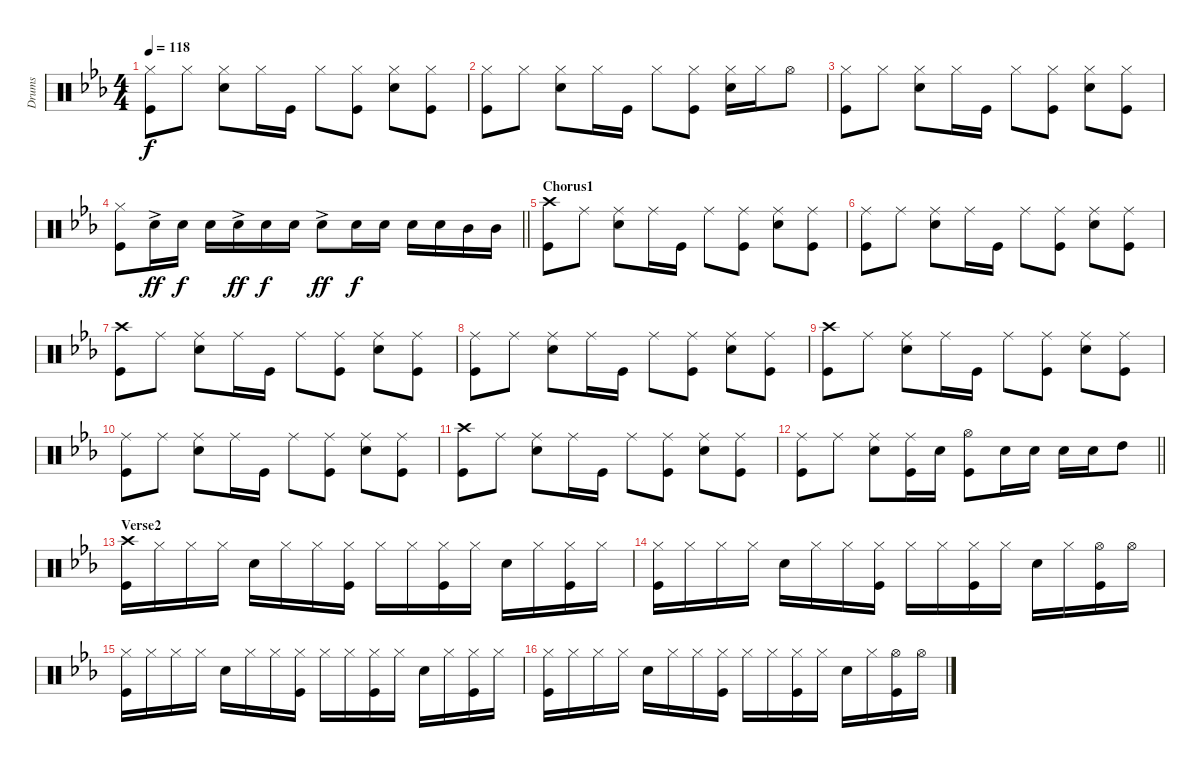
\track ("Drums" "Drums") {instrument percussion}
\staff {score}
\articulation defaults
\ts (4 4)
\tempo 118
\clef neutral
\ks cminor
("Hi-Hat (closed)" "Kick (hit)").8{dy f} "Hi-Hat (closed)".8 ("Hi-Hat (closed)" "Snare (hit) 2").8 "Hi-Hat (closed)".16 "Kick (hit)".16 "Hi-Hat (closed)".8 ("Hi-Hat (closed)" "Kick (hit)").8 ("Hi-Hat (closed)" "Snare (hit) 2").8 ("Hi-Hat (closed)" "Kick (hit)").8 |
("Hi-Hat (closed)" "Kick (hit)").8 "Hi-Hat (closed)".8 ("Hi-Hat (closed)" "Snare (hit) 2").8 "Hi-Hat (closed)".16 "Kick (hit)".16 "Hi-Hat (closed)".8 ("Hi-Hat (closed)" "Kick (hit)").8 ("Hi-Hat (closed)" "Snare (hit) 2").16 "Hi-Hat (closed)".16 "Hi-Hat (open)".8 |
("Hi-Hat (closed)" "Kick (hit)").8 "Hi-Hat (closed)".8 ("Hi-Hat (closed)" "Snare (hit) 2").8 "Hi-Hat (closed)".16 "Kick (hit)".16 "Hi-Hat (closed)".8 ("Hi-Hat (closed)" "Kick (hit)").8 ("Hi-Hat (closed)" "Snare (hit) 2").8 ("Hi-Hat (closed)" "Kick (hit)").8 |
\barLineRight lightlight
("Hi-Hat (closed)" "Kick (hit)").8 "Snare (hit) 2"{ac}.16{dy ff} "Snare (hit) 2".16{dy f} "Snare (hit) 2".16 "Snare (hit) 2"{ac}.16{dy ff} "Snare (hit) 2".16{dy f} "Snare (hit) 2".16 "Snare (hit) 2"{ac}.8{dy ff} "Snare (hit) 2".16{dy f} "Snare (hit) 2".16 "Snare (hit) 2".16 "Snare (hit) 2".16 "Mid Tom (hit)".16 "Mid Tom (hit)".16 |
\section ("" "Chorus1")
("Crash high (hit)" "Kick (hit)").8 "Ride (middle)".8 ("Ride (middle)" "Snare (hit) 2").8 "Ride (middle)".16 "Kick (hit)".16 "Ride (middle)".8 ("Ride (middle)" "Kick (hit)").8 ("Ride (middle)" "Snare (hit) 2").8 ("Ride (middle)" "Kick (hit)").8 |
("Ride (middle)" "Kick (hit)").8 "Ride (middle)".8 ("Ride (middle)" "Snare (hit) 2").8 "Ride (middle)".16 "Kick (hit)".16 "Ride (middle)".8 ("Ride (middle)" "Kick (hit)").8 ("Ride (middle)" "Snare (hit) 2").8 ("Ride (middle)" "Kick (hit)").8 |
("Crash high (hit)" "Kick (hit)").8 "Ride (middle)".8 ("Ride (middle)" "Snare (hit) 2").8 "Ride (middle)".16 "Kick (hit)".16 "Ride (middle)".8 ("Ride (middle)" "Kick (hit)").8 ("Ride (middle)" "Snare (hit) 2").8 ("Ride (middle)" "Kick (hit)").8 |
("Ride (middle)" "Kick (hit)").8 "Ride (middle)".8 ("Ride (middle)" "Snare (hit) 2").8 "Ride (middle)".16 "Kick (hit)".16 "Ride (middle)".8 ("Ride (middle)" "Kick (hit)").8 ("Ride (middle)" "Snare (hit) 2").8 ("Ride (middle)" "Kick (hit)").8 |
("Crash high (hit)" "Kick (hit)").8 "Ride (middle)".8 ("Ride (middle)" "Snare (hit) 2").8 "Ride (middle)".16 "Kick (hit)".16 "Ride (middle)".8 ("Ride (middle)" "Kick (hit)").8 ("Ride (middle)" "Snare (hit) 2").8 ("Ride (middle)" "Kick (hit)").8 |
("Ride (middle)" "Kick (hit)").8 "Ride (middle)".8 ("Ride (middle)" "Snare (hit) 2").8 "Ride (middle)".16 "Kick (hit)".16 "Ride (middle)".8 ("Ride (middle)" "Kick (hit)").8 ("Ride (middle)" "Snare (hit) 2").8 ("Ride (middle)" "Kick (hit)").8 |
("Crash high (hit)" "Kick (hit)").8 "Ride (middle)".8 ("Ride (middle)" "Snare (hit) 2").8 "Ride (middle)".16 "Kick (hit)".16 "Ride (middle)".8 ("Ride (middle)" "Kick (hit)").8 ("Ride (middle)" "Snare (hit) 2").8 ("Ride (middle)" "Kick (hit)").8 |
\barLineRight lightlight
("Ride (middle)" "Kick (hit)").8 "Ride (middle)".8 ("Ride (middle)" "Snare (hit) 2").8 ("Ride (middle)" "Kick (hit)").16 "Snare (hit) 2".16 ("Hi-Hat (open)" "Kick (hit)").8 "Snare (hit) 2".16 "Snare (hit) 2".16 "Snare (hit) 2".16 "Snare (hit) 2".16 "High Tom (hit)".8 |
\section ("" "Verse2")
("Crash high (hit)" "Kick (hit)").16 "Hi-Hat (closed)".16 "Hi-Hat (closed)".16 "Hi-Hat (closed)".16 "Snare (hit) 2".16 "Hi-Hat (closed)".16 "Hi-Hat (closed)".16 ("Hi-Hat (closed)" "Kick (hit)").16 "Hi-Hat (closed)".16 "Hi-Hat (closed)".16 ("Hi-Hat (closed)" "Kick (hit)").16 "Hi-Hat (closed)".16 "Snare (hit) 2".16 "Hi-Hat (closed)".16 ("Hi-Hat (closed)" "Kick (hit)").16 "Hi-Hat (closed)".16 |
("Hi-Hat (closed)" "Kick (hit)").16 "Hi-Hat (closed)".16 "Hi-Hat (closed)".16 "Hi-Hat (closed)".16 "Snare (hit) 2".16 "Hi-Hat (closed)".16 "Hi-Hat (closed)".16 ("Hi-Hat (closed)" "Kick (hit)").16 "Hi-Hat (closed)".16 "Hi-Hat (closed)".16 ("Hi-Hat (closed)" "Kick (hit)").16 "Hi-Hat (closed)".16 "Snare (hit) 2".16 "Hi-Hat (closed)".16 ("Kick (hit)" "Hi-Hat (open)").16 "Hi-Hat (open)".16 |
("Hi-Hat (closed)" "Kick (hit)").16 "Hi-Hat (closed)".16 "Hi-Hat (closed)".16 "Hi-Hat (closed)".16 "Snare (hit) 2".16 "Hi-Hat (closed)".16 "Hi-Hat (closed)".16 ("Hi-Hat (closed)" "Kick (hit)").16 "Hi-Hat (closed)".16 "Hi-Hat (closed)".16 ("Hi-Hat (closed)" "Kick (hit)").16 "Hi-Hat (closed)".16 "Snare (hit) 2".16 "Hi-Hat (closed)".16 ("Kick (hit)" "Hi-Hat (closed)").16 "Hi-Hat (closed)".16 |
("Hi-Hat (closed)" "Kick (hit)").16 "Hi-Hat (closed)".16 "Hi-Hat (closed)".16 "Hi-Hat (closed)".16 "Snare (hit) 2".16 "Hi-Hat (closed)".16 "Hi-Hat (closed)".16 ("Hi-Hat (closed)" "Kick (hit)").16 "Hi-Hat (closed)".16 "Hi-Hat (closed)".16 ("Hi-Hat (closed)" "Kick (hit)").16 "Hi-Hat (closed)".16 "Snare (hit) 2".16 "Hi-Hat (closed)".16 ("Kick (hit)" "Hi-Hat (open)").16 "Hi-Hat (open)".16
